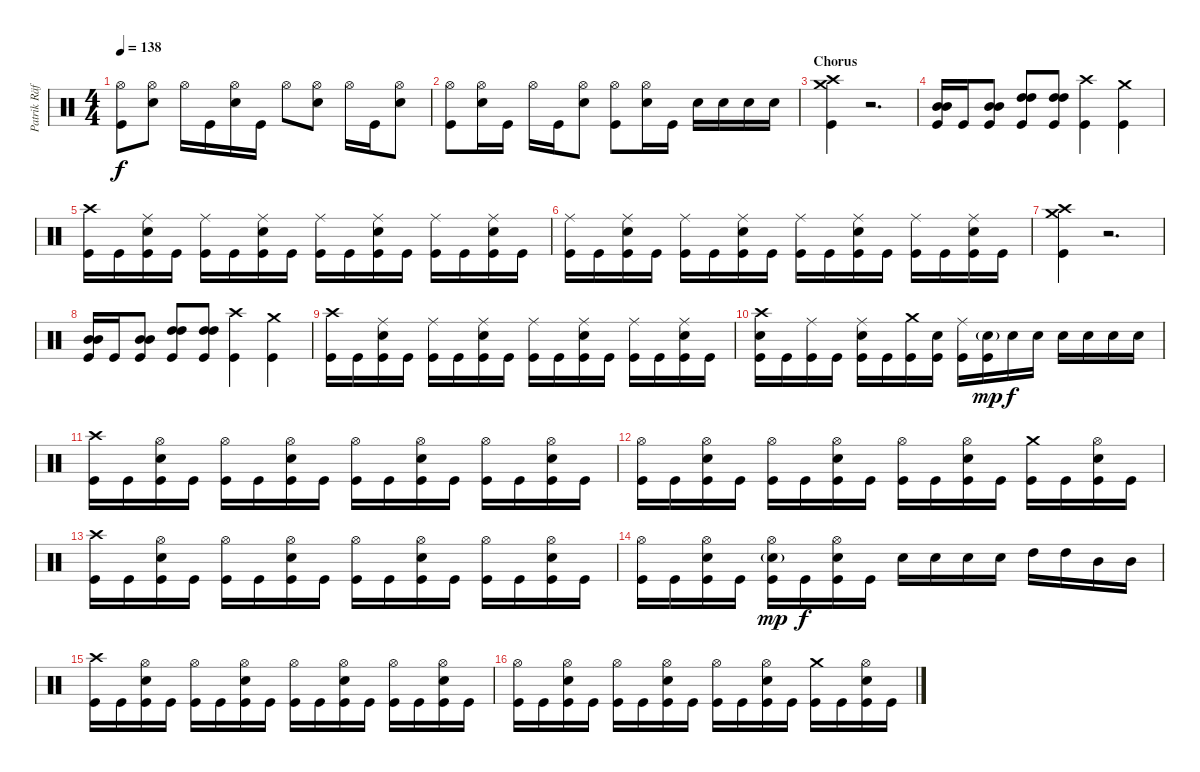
\track ("Patrik Räfling" "Patrik Räf") {instrument percussion}
\staff {score}
\articulation defaults
\ts (4 4)
\tempo 138
\clef neutral
\ks c
("Hi-Hat (open)" "Kick (hit)").8{dy f} ("Hi-Hat (open)" "Snare (hit) 2").8 "Hi-Hat (open)".16 "Kick (hit)".16 ("Hi-Hat (open)" "Snare (hit) 2").16 "Kick (hit)".16 "Hi-Hat (open)".8 ("Hi-Hat (open)" "Snare (hit) 2").8 "Hi-Hat (open)".16 "Kick (hit)".16 ("Hi-Hat (open)" "Snare (hit) 2").8 |
("Hi-Hat (open)" "Kick (hit)").8 ("Hi-Hat (open)" "Snare (hit) 2").16 "Kick (hit)".16 "Hi-Hat (open)".16 "Kick (hit)".16 ("Hi-Hat (open)" "Snare (hit) 2").8 ("Hi-Hat (open)" "Kick (hit)").8 ("Hi-Hat (open)" "Snare (hit) 2").16 "Kick (hit)".16 "Snare (hit) 2".16 "Snare (hit) 2".16 "Snare (hit) 2".16 "Snare (hit) 2".16 |
\section ("" "Chorus")
("Crash high (hit)" "Crash medium (hit)" "Kick (hit)").4 r.2{d} |
("Mid Tom (hit)" "Mid Tom (hit)" "Kick (hit)").16 "Kick (hit)".16 ("Mid Tom (hit)" "Mid Tom (hit)" "Kick (hit)").8 ("High Tom (hit)" "High Tom (hit)" "Kick (hit)").8 ("High Tom (hit)" "High Tom (hit)" "Kick (hit)").8 ("Crash high (hit)" "Kick (hit)").4 ("Crash medium (hit)" "Kick (hit)").4 |
("Crash high (hit)" "Kick (hit)").16 "Kick (hit)".16 ("Ride (middle)" "Snare (hit) 2" "Kick (hit)").16 "Kick (hit)".16 ("Ride (middle)" "Kick (hit)").16 "Kick (hit)".16 ("Ride (middle)" "Snare (hit) 2" "Kick (hit)").16 "Kick (hit)".16 ("Ride (middle)" "Kick (hit)").16 "Kick (hit)".16 ("Ride (middle)" "Snare (hit) 2" "Kick (hit)").16 "Kick (hit)".16 ("Ride (middle)" "Kick (hit)").16 "Kick (hit)".16 ("Ride (middle)" "Snare (hit) 2" "Kick (hit)").16 "Kick (hit)".16 |
("Ride (middle)" "Kick (hit)").16 "Kick (hit)".16 ("Ride (middle)" "Snare (hit) 2" "Kick (hit)").16 "Kick (hit)".16 ("Ride (middle)" "Kick (hit)").16 "Kick (hit)".16 ("Ride (middle)" "Snare (hit) 2" "Kick (hit)").16 "Kick (hit)".16 ("Ride (middle)" "Kick (hit)").16 "Kick (hit)".16 ("Ride (middle)" "Snare (hit) 2" "Kick (hit)").16 "Kick (hit)".16 ("Ride (middle)" "Kick (hit)").16 "Kick (hit)".16 ("Ride (middle)" "Snare (hit) 2" "Kick (hit)").16 "Kick (hit)".16 |
("Crash high (hit)" "Crash medium (hit)" "Kick (hit)").4 r.2{d} |
("Mid Tom (hit)" "Mid Tom (hit)" "Kick (hit)").16 "Kick (hit)".16 ("Mid Tom (hit)" "Mid Tom (hit)" "Kick (hit)").8 ("High Tom (hit)" "High Tom (hit)" "Kick (hit)").8 ("High Tom (hit)" "High Tom (hit)" "Kick (hit)").8 ("Crash high (hit)" "Kick (hit)").4 ("Crash medium (hit)" "Kick (hit)").4 |
("Crash high (hit)" "Kick (hit)").16 "Kick (hit)".16 ("Ride (middle)" "Snare (hit) 2" "Kick (hit)").16 "Kick (hit)".16 ("Ride (middle)" "Kick (hit)").16 "Kick (hit)".16 ("Ride (middle)" "Snare (hit) 2" "Kick (hit)").16 "Kick (hit)".16 ("Ride (middle)" "Kick (hit)").16 "Kick (hit)".16 ("Ride (middle)" "Snare (hit) 2" "Kick (hit)").16 "Kick (hit)".16 ("Ride (middle)" "Kick (hit)").16 "Kick (hit)".16 ("Ride (middle)" "Snare (hit) 2" "Kick (hit)").16 "Kick (hit)".16 |
("Crash high (hit)" "Snare (hit) 2" "Kick (hit)").16 "Kick (hit)".16 ("Ride (middle)" "Kick (hit)").16 "Kick (hit)".16 ("Ride (middle)" "Snare (hit) 2" "Kick (hit)").16 "Kick (hit)".16 ("Crash medium (hit)" "Kick (hit)").16 ("Snare (hit) 2" "Kick (hit)").16 ("Ride (middle)" "Kick (hit)").16 ("Snare (hit) 2"{g} "Kick (hit)").16{dy mp} "Snare (hit) 2".16{dy f} "Snare (hit) 2".16 "Snare (hit) 2".16 "Snare (hit) 2".16 "Snare (hit) 2".16 "Snare (hit) 2".16 |
("Crash high (hit)" "Kick (hit)").16 "Kick (hit)".16 ("Hi-Hat (open)" "Snare (hit) 2" "Kick (hit)").16 "Kick (hit)".16 ("Hi-Hat (open)" "Kick (hit)").16 "Kick (hit)".16 ("Hi-Hat (open)" "Snare (hit) 2" "Kick (hit)").16 "Kick (hit)".16 ("Hi-Hat (open)" "Kick (hit)").16 "Kick (hit)".16 ("Hi-Hat (open)" "Snare (hit) 2" "Kick (hit)").16 "Kick (hit)".16 ("Hi-Hat (open)" "Kick (hit)").16 "Kick (hit)".16 ("Hi-Hat (open)" "Snare (hit) 2" "Kick (hit)").16 "Kick (hit)".16 |
("Hi-Hat (open)" "Kick (hit)").16 "Kick (hit)".16 ("Hi-Hat (open)" "Snare (hit) 2" "Kick (hit)").16 "Kick (hit)".16 ("Hi-Hat (open)" "Kick (hit)").16 "Kick (hit)".16 ("Hi-Hat (open)" "Snare (hit) 2" "Kick (hit)").16 "Kick (hit)".16 ("Hi-Hat (open)" "Kick (hit)").16 "Kick (hit)".16 ("Hi-Hat (open)" "Snare (hit) 2" "Kick (hit)").16 "Kick (hit)".16 ("Crash medium (hit)" "Kick (hit)").16 "Kick (hit)".16 ("Hi-Hat (open)" "Snare (hit) 2" "Kick (hit)").16 "Kick (hit)".16 |
("Crash high (hit)" "Kick (hit)").16 "Kick (hit)".16 ("Hi-Hat (open)" "Snare (hit) 2" "Kick (hit)").16 "Kick (hit)".16 ("Hi-Hat (open)" "Kick (hit)").16 "Kick (hit)".16 ("Hi-Hat (open)" "Snare (hit) 2" "Kick (hit)").16 "Kick (hit)".16 ("Hi-Hat (open)" "Kick (hit)").16 "Kick (hit)".16 ("Hi-Hat (open)" "Snare (hit) 2" "Kick (hit)").16 "Kick (hit)".16 ("Hi-Hat (open)" "Kick (hit)").16 "Kick (hit)".16 ("Hi-Hat (open)" "Snare (hit) 2" "Kick (hit)").16 "Kick (hit)".16 |
("Hi-Hat (open)" "Kick (hit)").16 "Kick (hit)".16 ("Hi-Hat (open)" "Snare (hit) 2" "Kick (hit)").16 "Kick (hit)".16 ("Hi-Hat (open)" "Snare (hit) 2"{g} "Kick (hit)").16{dy mp} "Kick (hit)".16{dy f} ("Hi-Hat (open)" "Snare (hit) 2" "Kick (hit)").16 "Kick (hit)".16 "Snare (hit) 2".16 "Snare (hit) 2".16 "Snare (hit) 2".16 "Snare (hit) 2".16 "High Tom (hit)".16 "High Tom (hit)".16 "Mid Tom (hit)".16 "Mid Tom (hit)".16 |
("Crash high (hit)" "Kick (hit)").16 "Kick (hit)".16 ("Hi-Hat (open)" "Snare (hit) 2" "Kick (hit)").16 "Kick (hit)".16 ("Hi-Hat (open)" "Kick (hit)").16 "Kick (hit)".16 ("Hi-Hat (open)" "Snare (hit) 2" "Kick (hit)").16 "Kick (hit)".16 ("Hi-Hat (open)" "Kick (hit)").16 "Kick (hit)".16 ("Hi-Hat (open)" "Snare (hit) 2" "Kick (hit)").16 "Kick (hit)".16 ("Hi-Hat (open)" "Kick (hit)").16 "Kick (hit)".16 ("Hi-Hat (open)" "Snare (hit) 2" "Kick (hit)").16 "Kick (hit)".16 |
("Hi-Hat (open)" "Kick (hit)").16 "Kick (hit)".16 ("Hi-Hat (open)" "Snare (hit) 2" "Kick (hit)").16 "Kick (hit)".16 ("Hi-Hat (open)" "Kick (hit)").16 "Kick (hit)".16 ("Hi-Hat (open)" "Snare (hit) 2" "Kick (hit)").16 "Kick (hit)".16 ("Hi-Hat (open)" "Kick (hit)").16 "Kick (hit)".16 ("Hi-Hat (open)" "Snare (hit) 2" "Kick (hit)").16 "Kick (hit)".16 ("Crash medium (hit)" "Kick (hit)").16 "Kick (hit)".16 ("Hi-Hat (open)" "Snare (hit) 2" "Kick (hit)").16 "Kick (hit)".16
